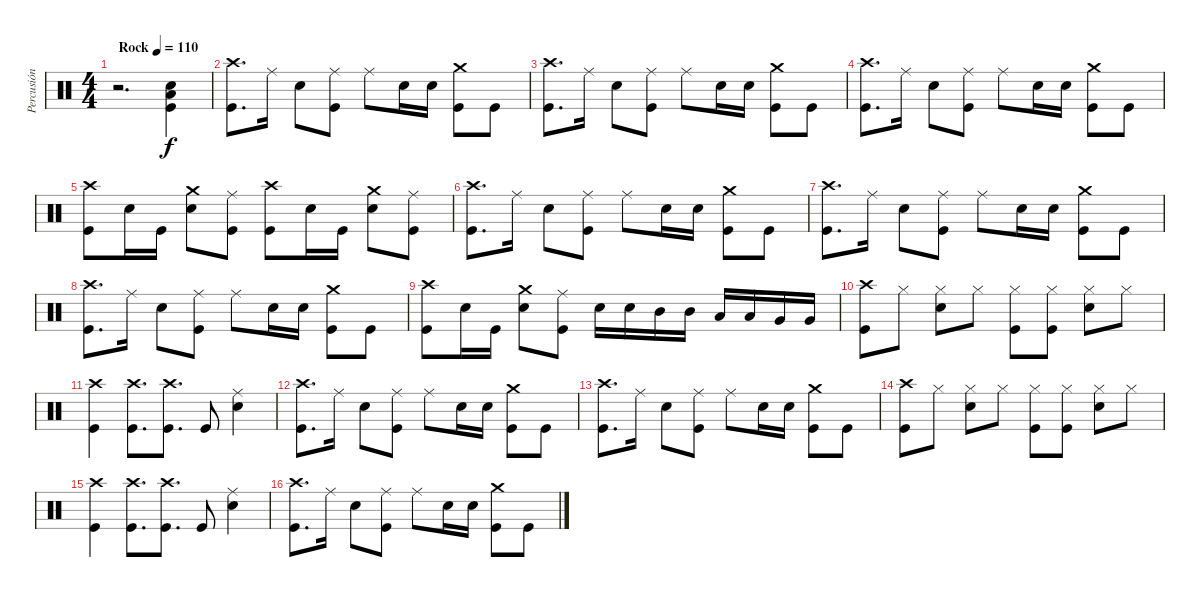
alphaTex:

\track ("Percusión" "Percusión") {instrument percussion}
\staff {score}
\articulation defaults
\ts (4 4)
\tempo (110 "Rock")
\clef neutral
\ks c
r.2{d dy f} ("Snare (hit) 2" "Kick (hit)" "Low Floor Tom (hit)").4 |
("Crash high (hit)" "Kick (hit)").8{d} "Ride (middle)".16 "Snare (hit) 2".8 ("Ride (middle)" "Kick (hit)").8 "Ride (middle)".8 "Snare (hit) 2".16 "Snare (hit) 2".16 ("Crash medium (hit)" "Kick (hit)").8 "Kick (hit)".8 |
("Crash high (hit)" "Kick (hit)").8{d} "Ride (middle)".16 "Snare (hit) 2".8 ("Ride (middle)" "Kick (hit)").8 "Ride (middle)".8 "Snare (hit) 2".16 "Snare (hit) 2".16 ("Crash medium (hit)" "Kick (hit)").8 "Kick (hit)".8 |
("Crash high (hit)" "Kick (hit)").8{d} "Ride (middle)".16 "Snare (hit) 2".8 ("Ride (middle)" "Kick (hit)").8 "Ride (middle)".8 "Snare (hit) 2".16 "Snare (hit) 2".16 ("Crash medium (hit)" "Kick (hit)").8 "Kick (hit)".8 |
("Crash high (hit)" "Kick (hit)").8 "Snare (hit) 2".16 "Kick (hit)".16 ("Crash medium (hit)" "Snare (hit) 2").8 ("Ride (middle)" "Kick (hit)").8 ("Crash high (hit)" "Kick (hit)").8 "Snare (hit) 2".16 "Kick (hit)".16 ("Crash medium (hit)" "Snare (hit) 2").8 ("Ride (middle)" "Kick (hit)").8 |
("Crash high (hit)" "Kick (hit)").8{d} "Ride (middle)".16 "Snare (hit) 2".8 ("Ride (middle)" "Kick (hit)").8 "Ride (middle)".8 "Snare (hit) 2".16 "Snare (hit) 2".16 ("Crash medium (hit)" "Kick (hit)").8 "Kick (hit)".8 |
("Crash high (hit)" "Kick (hit)").8{d} "Ride (middle)".16 "Snare (hit) 2".8 ("Ride (middle)" "Kick (hit)").8 "Ride (middle)".8 "Snare (hit) 2".16 "Snare (hit) 2".16 ("Crash medium (hit)" "Kick (hit)").8 "Kick (hit)".8 |
("Crash high (hit)" "Kick (hit)").8{d} "Ride (middle)".16 "Snare (hit) 2".8 ("Ride (middle)" "Kick (hit)").8 "Ride (middle)".8 "Snare (hit) 2".16 "Snare (hit) 2".16 ("Crash medium (hit)" "Kick (hit)").8 "Kick (hit)".8 |
("Crash high (hit)" "Kick (hit)").8 "Snare (hit) 2".16 "Kick (hit)".16 ("Crash medium (hit)" "Snare (hit) 2").8 ("Ride (middle)" "Kick (hit)").8 "Snare (hit) 2".16 "Snare (hit) 2".16 "Mid Tom (hit)".16 "Mid Tom (hit)".16 "Low Tom (hit)".16 "Low Tom (hit)".16 "Very Low Tom (hit)".16 "Very Low Tom (hit)".16 |
("Crash high (hit)" "Kick (hit)").8 "Hi-Hat (closed)".8 ("Hi-Hat (closed)" "Snare (hit) 2").8 "Hi-Hat (closed)".8 ("Hi-Hat (closed)" "Kick (hit)").8 ("Hi-Hat (closed)" "Kick (hit)").8 ("Hi-Hat (closed)" "Snare (hit) 2").8 "Hi-Hat (closed)".8 |
("Crash high (hit)" "Kick (hit)").4 ("Crash high (hit)" "Kick (hit)").8{d} ("Crash high (hit)" "Kick (hit)").8{d} "Kick (hit)".8 ("Ride (middle)" "Snare (hit) 2").4 |
("Crash high (hit)" "Kick (hit)").8{d} "Ride (middle)".16 "Snare (hit) 2".8 ("Ride (middle)" "Kick (hit)").8 "Ride (middle)".8 "Snare (hit) 2".16 "Snare (hit) 2".16 ("Crash medium (hit)" "Kick (hit)").8 "Kick (hit)".8 |
("Crash high (hit)" "Kick (hit)").8{d} "Ride (middle)".16 "Snare (hit) 2".8 ("Ride (middle)" "Kick (hit)").8 "Ride (middle)".8 "Snare (hit) 2".16 "Snare (hit) 2".16 ("Crash medium (hit)" "Kick (hit)").8 "Kick (hit)".8 |
("Crash high (hit)" "Kick (hit)").8 "Hi-Hat (closed)".8 ("Hi-Hat (closed)" "Snare (hit) 2").8 "Hi-Hat (closed)".8 ("Hi-Hat (closed)" "Kick (hit)").8 ("Hi-Hat (closed)" "Kick (hit)").8 ("Hi-Hat (closed)" "Snare (hit) 2").8 "Hi-Hat (closed)".8 |
("Crash high (hit)" "Kick (hit)").4 ("Crash high (hit)" "Kick (hit)").8{d} ("Crash high (hit)" "Kick (hit)").8{d} "Kick (hit)".8 ("Ride (middle)" "Snare (hit) 2").4 |
("Crash high (hit)" "Kick (hit)").8{d} "Ride (middle)".16 "Snare (hit) 2".8 ("Ride (middle)" "Kick (hit)").8 "Ride (middle)".8 "Snare (hit) 2".16 "Snare (hit) 2".16 ("Crash medium (hit)" "Kick (hit)").8 "Kick (hit)".8
